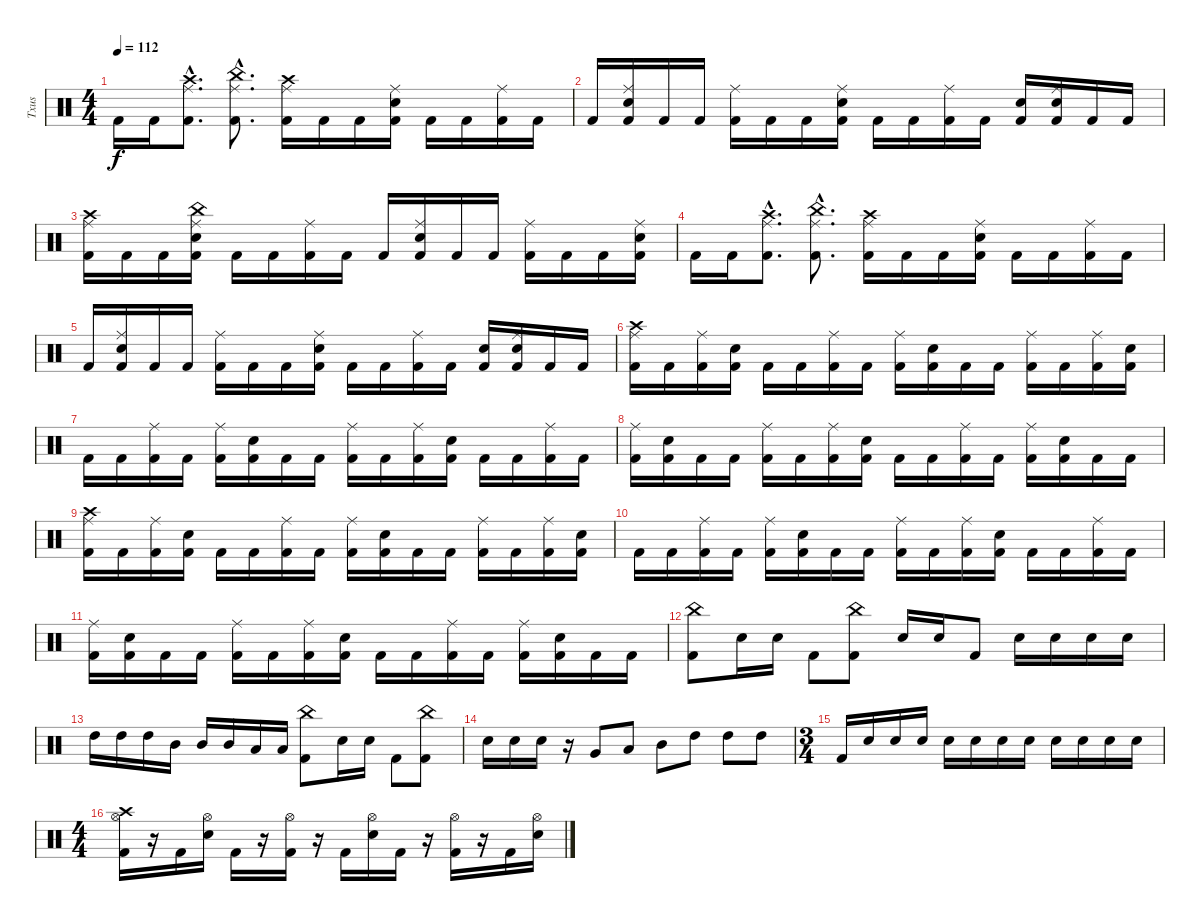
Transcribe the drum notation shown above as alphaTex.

\track ("Txus" "Txus") {instrument percussion}
\staff {score}
\articulation defaults
\ts (4 4)
\tempo 112
\clef neutral
\ks c "Kick (hit) 2".16{dy f} "Kick (hit) 2".16
("Kick (hit) 2"{hac} "Ride (middle)"{hac} "Crash high (hit)"{hac}).8{d} ("Kick (hit) 2"{hac} "Ride (middle)"{hac} "China (hit)"{hac}).8{d} ("Kick (hit) 2" "Ride (middle)" "Crash high (hit)").16 "Kick (hit) 2".16 "Kick (hit) 2".16 ("Kick (hit) 2" "Ride (middle)" "Electric Snare (hit)").16 "Kick (hit) 2".16 "Kick (hit) 2".16 ("Kick (hit) 2" "Ride (middle)").16 "Kick (hit) 2".16 |
"Kick (hit) 2".16 ("Kick (hit) 2" "Ride (middle)" "Electric Snare (hit)").16 "Kick (hit) 2".16 "Kick (hit) 2".16 ("Kick (hit) 2" "Ride (middle)").16 "Kick (hit) 2".16 "Kick (hit) 2".16 ("Kick (hit) 2" "Ride (middle)" "Electric Snare (hit)").16 "Kick (hit) 2".16 "Kick (hit) 2".16 ("Kick (hit) 2" "Ride (middle)").16 "Kick (hit) 2".16 ("Kick (hit) 2" "Electric Snare (hit)").16 ("Kick (hit) 2" "Ride (middle)" "Electric Snare (hit)").16 "Kick (hit) 2".16 "Kick (hit) 2".16 |
("Kick (hit) 2" "Ride (middle)" "Crash high (hit)").16 "Kick (hit) 2".16 "Kick (hit) 2".16 ("Kick (hit) 2" "Ride (middle)" "Electric Snare (hit)" "China (hit)").16 "Kick (hit) 2".16 "Kick (hit) 2".16 ("Kick (hit) 2" "Ride (middle)").16 "Kick (hit) 2".16 "Kick (hit) 2".16 ("Kick (hit) 2" "Ride (middle)" "Electric Snare (hit)").16 "Kick (hit) 2".16 "Kick (hit) 2".16 ("Kick (hit) 2" "Ride (middle)").16 "Kick (hit) 2".16 "Kick (hit) 2".16 ("Kick (hit) 2" "Ride (middle)" "Electric Snare (hit)").16 |
"Kick (hit) 2".16 "Kick (hit) 2".16 ("Kick (hit) 2"{hac} "Ride (middle)"{hac} "Crash high (hit)"{hac}).8{d} ("Kick (hit) 2"{hac} "Ride (middle)"{hac} "China (hit)"{hac}).8{d} ("Kick (hit) 2" "Ride (middle)" "Crash high (hit)").16 "Kick (hit) 2".16 "Kick (hit) 2".16 ("Kick (hit) 2" "Ride (middle)" "Electric Snare (hit)").16 "Kick (hit) 2".16 "Kick (hit) 2".16 ("Kick (hit) 2" "Ride (middle)").16 "Kick (hit) 2".16 |
"Kick (hit) 2".16 ("Kick (hit) 2" "Ride (middle)" "Electric Snare (hit)").16 "Kick (hit) 2".16 "Kick (hit) 2".16 ("Kick (hit) 2" "Ride (middle)").16 "Kick (hit) 2".16 "Kick (hit) 2".16 ("Kick (hit) 2" "Ride (middle)" "Electric Snare (hit)").16 "Kick (hit) 2".16 "Kick (hit) 2".16 ("Kick (hit) 2" "Ride (middle)").16 "Kick (hit) 2".16 ("Kick (hit) 2" "Electric Snare (hit)").16 ("Kick (hit) 2" "Ride (middle)" "Electric Snare (hit)").16 "Kick (hit) 2".16 "Kick (hit) 2".16 |
("Kick (hit) 2" "Ride (middle)" "Crash high (hit)").16 "Kick (hit) 2".16 ("Kick (hit) 2" "Ride (middle)").16 ("Kick (hit) 2" "Electric Snare (hit)").16 "Kick (hit) 2".16 "Kick (hit) 2".16 ("Kick (hit) 2" "Ride (middle)").16 "Kick (hit) 2".16 ("Kick (hit) 2" "Ride (middle)").16 ("Kick (hit) 2" "Electric Snare (hit)").16 "Kick (hit) 2".16 "Kick (hit) 2".16 ("Kick (hit) 2" "Ride (middle)").16 "Kick (hit) 2".16 ("Kick (hit) 2" "Ride (middle)").16 ("Kick (hit) 2" "Electric Snare (hit)").16 |
"Kick (hit) 2".16 "Kick (hit) 2".16 ("Kick (hit) 2" "Ride (middle)").16 "Kick (hit) 2".16 ("Kick (hit) 2" "Ride (middle)").16 ("Kick (hit) 2" "Electric Snare (hit)").16 "Kick (hit) 2".16 "Kick (hit) 2".16 ("Kick (hit) 2" "Ride (middle)").16 "Kick (hit) 2".16 ("Kick (hit) 2" "Ride (middle)").16 ("Kick (hit) 2" "Electric Snare (hit)").16 "Kick (hit) 2".16 "Kick (hit) 2".16 ("Kick (hit) 2" "Ride (middle)").16 "Kick (hit) 2".16 |
("Kick (hit) 2" "Ride (middle)").16 ("Kick (hit) 2" "Electric Snare (hit)").16 "Kick (hit) 2".16 "Kick (hit) 2".16 ("Kick (hit) 2" "Ride (middle)").16 "Kick (hit) 2".16 ("Kick (hit) 2" "Ride (middle)").16 ("Kick (hit) 2" "Electric Snare (hit)").16 "Kick (hit) 2".16 "Kick (hit) 2".16 ("Kick (hit) 2" "Ride (middle)").16 "Kick (hit) 2".16 ("Kick (hit) 2" "Ride (middle)").16 ("Kick (hit) 2" "Electric Snare (hit)").16 "Kick (hit) 2".16 "Kick (hit) 2".16 |
("Kick (hit) 2" "Ride (middle)" "Crash high (hit)").16 "Kick (hit) 2".16 ("Kick (hit) 2" "Ride (middle)").16 ("Kick (hit) 2" "Electric Snare (hit)").16 "Kick (hit) 2".16 "Kick (hit) 2".16 ("Kick (hit) 2" "Ride (middle)").16 "Kick (hit) 2".16 ("Kick (hit) 2" "Ride (middle)").16 ("Kick (hit) 2" "Electric Snare (hit)").16 "Kick (hit) 2".16 "Kick (hit) 2".16 ("Kick (hit) 2" "Ride (middle)").16 "Kick (hit) 2".16 ("Kick (hit) 2" "Ride (middle)").16 ("Kick (hit) 2" "Electric Snare (hit)").16 |
"Kick (hit) 2".16 "Kick (hit) 2".16 ("Kick (hit) 2" "Ride (middle)").16 "Kick (hit) 2".16 ("Kick (hit) 2" "Ride (middle)").16 ("Kick (hit) 2" "Electric Snare (hit)").16 "Kick (hit) 2".16 "Kick (hit) 2".16 ("Kick (hit) 2" "Ride (middle)").16 "Kick (hit) 2".16 ("Kick (hit) 2" "Ride (middle)").16 ("Kick (hit) 2" "Electric Snare (hit)").16 "Kick (hit) 2".16 "Kick (hit) 2".16 ("Kick (hit) 2" "Ride (middle)").16 "Kick (hit) 2".16 |
("Kick (hit) 2" "Ride (middle)").16 ("Kick (hit) 2" "Electric Snare (hit)").16 "Kick (hit) 2".16 "Kick (hit) 2".16 ("Kick (hit) 2" "Ride (middle)").16 "Kick (hit) 2".16 ("Kick (hit) 2" "Ride (middle)").16 ("Kick (hit) 2" "Electric Snare (hit)").16 "Kick (hit) 2".16 "Kick (hit) 2".16 ("Kick (hit) 2" "Ride (middle)").16 "Kick (hit) 2".16 ("Kick (hit) 2" "Ride (middle)").16 ("Kick (hit) 2" "Electric Snare (hit)").16 "Kick (hit) 2".16 "Kick (hit) 2".16 |
("Kick (hit) 2" "China (hit)").8 "Electric Snare (hit)".16 "Electric Snare (hit)".16 "Kick (hit) 2".8 ("Kick (hit) 2" "China (hit)").8 "Electric Snare (hit)".16 "Electric Snare (hit)".16 "Kick (hit) 2".8 "Electric Snare (hit)".16 "Electric Snare (hit)".16 "Electric Snare (hit)".16 "Electric Snare (hit)".16 |
"High Tom (hit)".16 "High Tom (hit)".16 "High Tom (hit)".16 "Mid Tom (hit)".16 "Mid Tom (hit)".16 "Mid Tom (hit)".16 "Low Tom (hit)".16 "Low Tom (hit)".16 ("Kick (hit) 2" "China (hit)").8 "Electric Snare (hit)".16 "Electric Snare (hit)".16 "Kick (hit) 2".8 ("Kick (hit) 2" "China (hit)").8 |
"Electric Snare (hit)".16 "Electric Snare (hit)".16 "Electric Snare (hit)".16 r.16 "Very Low Tom (hit)".8 "Low Tom (hit)".8 "Mid Tom (hit)".8 "High Tom (hit)".8 "High Tom (hit)".8 "High Tom (hit)".8 |
\ts (3 4)
"Kick (hit) 2".16{volume 6} "Electric Snare (hit)".16{volume 14} "Electric Snare (hit)".16 "Electric Snare (hit)".16 "Electric Snare (hit)".16 "Electric Snare (hit)".16 "Electric Snare (hit)".16 "Electric Snare (hit)".16 "Electric Snare (hit)".16 "Electric Snare (hit)".16 "Electric Snare (hit)".16 "Electric Snare (hit)".16 |
\ts (4 4)
("Kick (hit) 2" "Hi-Hat (open)" "Crash high (hit)").16 r.16 "Kick (hit) 2".16 ("Hi-Hat (open)" "Electric Snare (hit)").16 "Kick (hit) 2".16 r.16 ("Kick (hit) 2" "Hi-Hat (open)").16 r.16 "Kick (hit) 2".16 ("Hi-Hat (open)" "Electric Snare (hit)").16 "Kick (hit) 2".16 r.16 ("Kick (hit) 2" "Hi-Hat (open)").16 r.16 "Kick (hit) 2".16 ("Hi-Hat (open)" "Electric Snare (hit)").16
